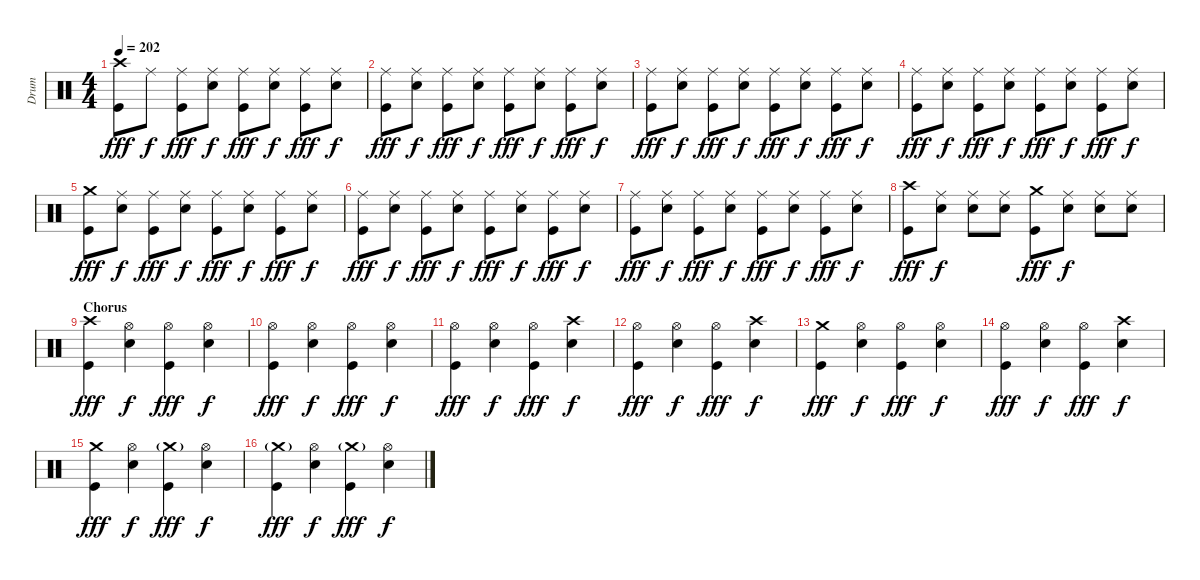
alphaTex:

\track ("Drum" "Drum") {instrument percussion}
\staff {score}
\articulation defaults
\ts (4 4)
\tempo 202
\clef neutral
\ks c
("Crash high (hit)" "Kick (hit)").8{dy fff} "Ride (middle)".8{dy f} ("Ride (middle)" "Kick (hit)").8{dy fff} ("Ride (middle)" "Electric Snare (hit)").8{dy f} ("Ride (middle)" "Kick (hit)").8{dy fff} ("Ride (middle)" "Electric Snare (hit)").8{dy f} ("Ride (middle)" "Kick (hit)").8{dy fff} ("Ride (middle)" "Electric Snare (hit)").8{dy f} |
("Ride (middle)" "Kick (hit)").8{dy fff} ("Ride (middle)" "Electric Snare (hit)").8{dy f} ("Ride (middle)" "Kick (hit)").8{dy fff} ("Ride (middle)" "Electric Snare (hit)").8{dy f} ("Ride (middle)" "Kick (hit)").8{dy fff} ("Ride (middle)" "Electric Snare (hit)").8{dy f} ("Ride (middle)" "Kick (hit)").8{dy fff} ("Ride (middle)" "Electric Snare (hit)").8{dy f} |
("Ride (middle)" "Kick (hit)").8{dy fff} ("Ride (middle)" "Electric Snare (hit)").8{dy f} ("Ride (middle)" "Kick (hit)").8{dy fff} ("Ride (middle)" "Electric Snare (hit)").8{dy f} ("Ride (middle)" "Kick (hit)").8{dy fff} ("Ride (middle)" "Electric Snare (hit)").8{dy f} ("Ride (middle)" "Kick (hit)").8{dy fff} ("Ride (middle)" "Electric Snare (hit)").8{dy f} |
("Ride (middle)" "Kick (hit)").8{dy fff} ("Ride (middle)" "Electric Snare (hit)").8{dy f} ("Ride (middle)" "Kick (hit)").8{dy fff} ("Ride (middle)" "Electric Snare (hit)").8{dy f} ("Ride (middle)" "Kick (hit)").8{dy fff} ("Ride (middle)" "Electric Snare (hit)").8{dy f} ("Ride (middle)" "Kick (hit)").8{dy fff} ("Ride (middle)" "Electric Snare (hit)").8{dy f} |
("Crash medium (hit)" "Kick (hit)").8{dy fff} ("Ride (middle)" "Electric Snare (hit)").8{dy f} ("Ride (middle)" "Kick (hit)").8{dy fff} ("Ride (middle)" "Electric Snare (hit)").8{dy f} ("Ride (middle)" "Kick (hit)").8{dy fff} ("Ride (middle)" "Electric Snare (hit)").8{dy f} ("Ride (middle)" "Kick (hit)").8{dy fff} ("Ride (middle)" "Electric Snare (hit)").8{dy f} |
("Ride (middle)" "Kick (hit)").8{dy fff} ("Ride (middle)" "Electric Snare (hit)").8{dy f} ("Ride (middle)" "Kick (hit)").8{dy fff} ("Ride (middle)" "Electric Snare (hit)").8{dy f} ("Ride (middle)" "Kick (hit)").8{dy fff} ("Ride (middle)" "Electric Snare (hit)").8{dy f} ("Ride (middle)" "Kick (hit)").8{dy fff} ("Ride (middle)" "Electric Snare (hit)").8{dy f} |
("Ride (middle)" "Kick (hit)").8{dy fff} ("Ride (middle)" "Electric Snare (hit)").8{dy f} ("Ride (middle)" "Kick (hit)").8{dy fff} ("Ride (middle)" "Electric Snare (hit)").8{dy f} ("Ride (middle)" "Kick (hit)").8{dy fff} ("Ride (middle)" "Electric Snare (hit)").8{dy f} ("Ride (middle)" "Kick (hit)").8{dy fff} ("Ride (middle)" "Electric Snare (hit)").8{dy f} |
("Crash high (hit)" "Kick (hit)").8{dy fff} ("Ride (middle)" "Electric Snare (hit)").8{dy f} ("Ride (middle)" "Electric Snare (hit)").8 ("Ride (middle)" "Electric Snare (hit)").8 ("Crash medium (hit)" "Kick (hit)").8{dy fff} ("Ride (middle)" "Electric Snare (hit)").8{dy f} ("Ride (middle)" "Electric Snare (hit)").8 ("Ride (middle)" "Electric Snare (hit)").8 |
\section ("" "Chorus")
("Crash high (hit)" "Kick (hit)").4{dy fff} ("Hi-Hat (open)" "Electric Snare (hit)").4{dy f} ("Hi-Hat (open)" "Kick (hit)").4{dy fff} ("Hi-Hat (open)" "Electric Snare (hit)").4{dy f} |
("Hi-Hat (open)" "Kick (hit)").4{dy fff} ("Hi-Hat (open)" "Electric Snare (hit)").4{dy f} ("Hi-Hat (open)" "Kick (hit)").4{dy fff} ("Hi-Hat (open)" "Electric Snare (hit)").4{dy f} |
("Hi-Hat (open)" "Kick (hit)").4{dy fff} ("Hi-Hat (open)" "Electric Snare (hit)").4{dy f} ("Hi-Hat (open)" "Kick (hit)").4{dy fff} ("Crash high (hit)" "Electric Snare (hit)").4{dy f} |
("Hi-Hat (open)" "Kick (hit)").4{dy fff} ("Hi-Hat (open)" "Electric Snare (hit)").4{dy f} ("Hi-Hat (open)" "Kick (hit)").4{dy fff} ("Crash high (hit)" "Electric Snare (hit)").4{dy f} |
("Crash medium (hit)" "Kick (hit)").4{dy fff} ("Hi-Hat (open)" "Electric Snare (hit)").4{dy f} ("Hi-Hat (open)" "Kick (hit)").4{dy fff} ("Hi-Hat (open)" "Electric Snare (hit)").4{dy f} |
("Hi-Hat (open)" "Kick (hit)").4{dy fff} ("Hi-Hat (open)" "Electric Snare (hit)").4{dy f} ("Hi-Hat (open)" "Kick (hit)").4{dy fff} ("Crash high (hit)" "Electric Snare (hit)").4{dy f} |
("Crash medium (hit)" "Kick (hit)").4{dy fff} ("Hi-Hat (open)" "Electric Snare (hit)").4{dy f} ("Crash medium (hit)"{g} "Kick (hit)").4{dy fff} ("Hi-Hat (open)" "Electric Snare (hit)").4{dy f} |
("Crash medium (hit)"{g} "Kick (hit)").4{dy fff} ("Hi-Hat (open)" "Electric Snare (hit)").4{dy f} ("Crash medium (hit)"{g} "Kick (hit)").4{dy fff} ("Hi-Hat (open)" "Electric Snare (hit)").4{dy f}
